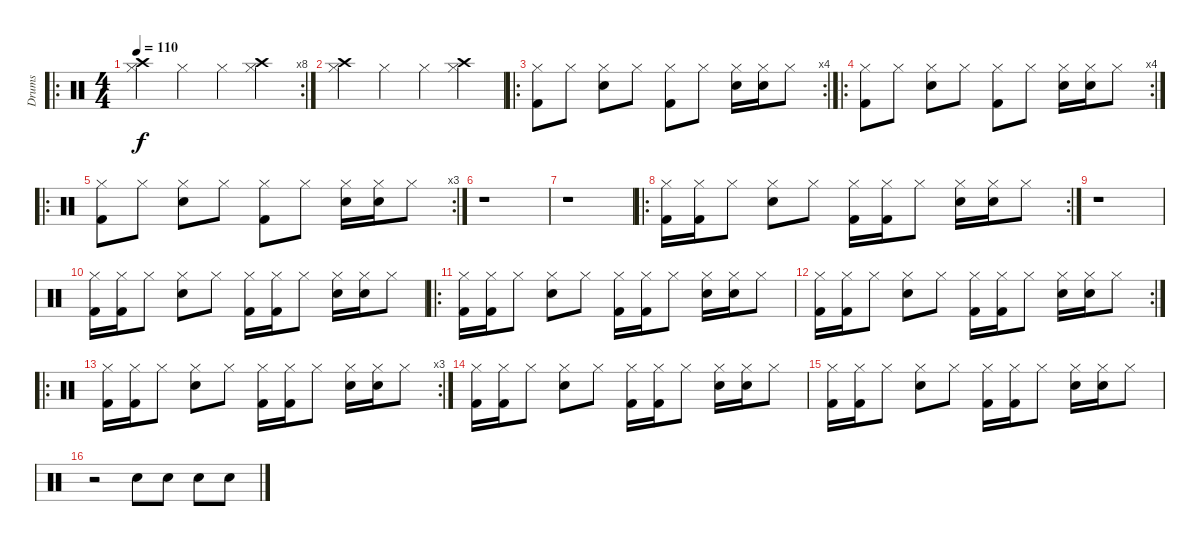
\track ("Drums" "Drums") {instrument percussion}
\staff {score}
\articulation defaults
\ro
\rc 8
\ts (4 4)
\tempo 110
\clef neutral
\ks c
("Hi-Hat (closed)" "Crash high (hit)").4{dy f} "Hi-Hat (closed)".4 "Hi-Hat (closed)".4 ("Hi-Hat (closed)" "Crash high (hit)").4 |
("Hi-Hat (closed)" "Crash high (hit)").4 "Hi-Hat (closed)".4 "Hi-Hat (closed)".4 ("Hi-Hat (closed)" "Crash high (hit)").4 |
\ro
\rc 4
("Hi-Hat (closed)" "Kick (hit) 2").8 "Hi-Hat (closed)".8 ("Hi-Hat (closed)" "Snare (hit) 2").8 "Hi-Hat (closed)".8 ("Hi-Hat (closed)" "Kick (hit) 2").8 "Hi-Hat (closed)".8 ("Hi-Hat (closed)" "Snare (hit) 2").16 ("Hi-Hat (closed)" "Snare (hit) 2").16 "Hi-Hat (closed)".8 |
\ro
\rc 4
("Hi-Hat (closed)" "Kick (hit) 2").8 "Hi-Hat (closed)".8 ("Hi-Hat (closed)" "Snare (hit) 2").8 "Hi-Hat (closed)".8 ("Hi-Hat (closed)" "Kick (hit) 2").8 "Hi-Hat (closed)".8 ("Hi-Hat (closed)" "Snare (hit) 2").16 ("Hi-Hat (closed)" "Snare (hit) 2").16 "Hi-Hat (closed)".8 |
\ro
\rc 3
("Hi-Hat (closed)" "Kick (hit) 2").8 "Hi-Hat (closed)".8 ("Hi-Hat (closed)" "Snare (hit) 2").8 "Hi-Hat (closed)".8 ("Hi-Hat (closed)" "Kick (hit) 2").8 "Hi-Hat (closed)".8 ("Hi-Hat (closed)" "Snare (hit) 2").16 ("Hi-Hat (closed)" "Snare (hit) 2").16 "Hi-Hat (closed)".8 |
r.1 |
r.1 |
\ro
\rc 2
("Hi-Hat (closed)" "Kick (hit) 2").16 ("Hi-Hat (closed)" "Kick (hit) 2").16 "Hi-Hat (closed)".8 ("Hi-Hat (closed)" "Snare (hit) 2").8 "Hi-Hat (closed)".8 ("Hi-Hat (closed)" "Kick (hit) 2").16 ("Hi-Hat (closed)" "Kick (hit) 2").16 "Hi-Hat (closed)".8 ("Hi-Hat (closed)" "Snare (hit) 2").16 ("Hi-Hat (closed)" "Snare (hit) 2").16 "Hi-Hat (closed)".8 |
r.1 |
("Hi-Hat (closed)" "Kick (hit) 2").16 ("Hi-Hat (closed)" "Kick (hit) 2").16 "Hi-Hat (closed)".8 ("Hi-Hat (closed)" "Snare (hit) 2").8 "Hi-Hat (closed)".8 ("Hi-Hat (closed)" "Kick (hit) 2").16 ("Hi-Hat (closed)" "Kick (hit) 2").16 "Hi-Hat (closed)".8 ("Hi-Hat (closed)" "Snare (hit) 2").16 ("Hi-Hat (closed)" "Snare (hit) 2").16 "Hi-Hat (closed)".8 |
\ro
("Hi-Hat (closed)" "Kick (hit) 2").16 ("Hi-Hat (closed)" "Kick (hit) 2").16 "Hi-Hat (closed)".8 ("Hi-Hat (closed)" "Snare (hit) 2").8 "Hi-Hat (closed)".8 ("Hi-Hat (closed)" "Kick (hit) 2").16 ("Hi-Hat (closed)" "Kick (hit) 2").16 "Hi-Hat (closed)".8 ("Hi-Hat (closed)" "Snare (hit) 2").16 ("Hi-Hat (closed)" "Snare (hit) 2").16 "Hi-Hat (closed)".8 |
\rc 2
("Hi-Hat (closed)" "Kick (hit) 2").16 ("Hi-Hat (closed)" "Kick (hit) 2").16 "Hi-Hat (closed)".8 ("Hi-Hat (closed)" "Snare (hit) 2").8 "Hi-Hat (closed)".8 ("Hi-Hat (closed)" "Kick (hit) 2").16 ("Hi-Hat (closed)" "Kick (hit) 2").16 "Hi-Hat (closed)".8 ("Hi-Hat (closed)" "Snare (hit) 2").16 ("Hi-Hat (closed)" "Snare (hit) 2").16 "Hi-Hat (closed)".8 |
\ro
\rc 3
("Hi-Hat (closed)" "Kick (hit) 2").16 ("Hi-Hat (closed)" "Kick (hit) 2").16 "Hi-Hat (closed)".8 ("Hi-Hat (closed)" "Snare (hit) 2").8 "Hi-Hat (closed)".8 ("Hi-Hat (closed)" "Kick (hit) 2").16 ("Hi-Hat (closed)" "Kick (hit) 2").16 "Hi-Hat (closed)".8 ("Hi-Hat (closed)" "Snare (hit) 2").16 ("Hi-Hat (closed)" "Snare (hit) 2").16 "Hi-Hat (closed)".8 |
("Hi-Hat (closed)" "Kick (hit) 2").16 ("Hi-Hat (closed)" "Kick (hit) 2").16 "Hi-Hat (closed)".8 ("Hi-Hat (closed)" "Snare (hit) 2").8 "Hi-Hat (closed)".8 ("Hi-Hat (closed)" "Kick (hit) 2").16 ("Hi-Hat (closed)" "Kick (hit) 2").16 "Hi-Hat (closed)".8 ("Hi-Hat (closed)" "Snare (hit) 2").16 ("Hi-Hat (closed)" "Snare (hit) 2").16 "Hi-Hat (closed)".8 |
("Hi-Hat (closed)" "Kick (hit) 2").16 ("Hi-Hat (closed)" "Kick (hit) 2").16 "Hi-Hat (closed)".8 ("Hi-Hat (closed)" "Snare (hit) 2").8 "Hi-Hat (closed)".8 ("Hi-Hat (closed)" "Kick (hit) 2").16 ("Hi-Hat (closed)" "Kick (hit) 2").16 "Hi-Hat (closed)".8 ("Hi-Hat (closed)" "Snare (hit) 2").16 ("Hi-Hat (closed)" "Snare (hit) 2").16 "Hi-Hat (closed)".8 |
r.2 "Snare (hit) 2".8 "Snare (hit) 2".8 "Snare (hit) 2".8 "Snare (hit) 2".8
